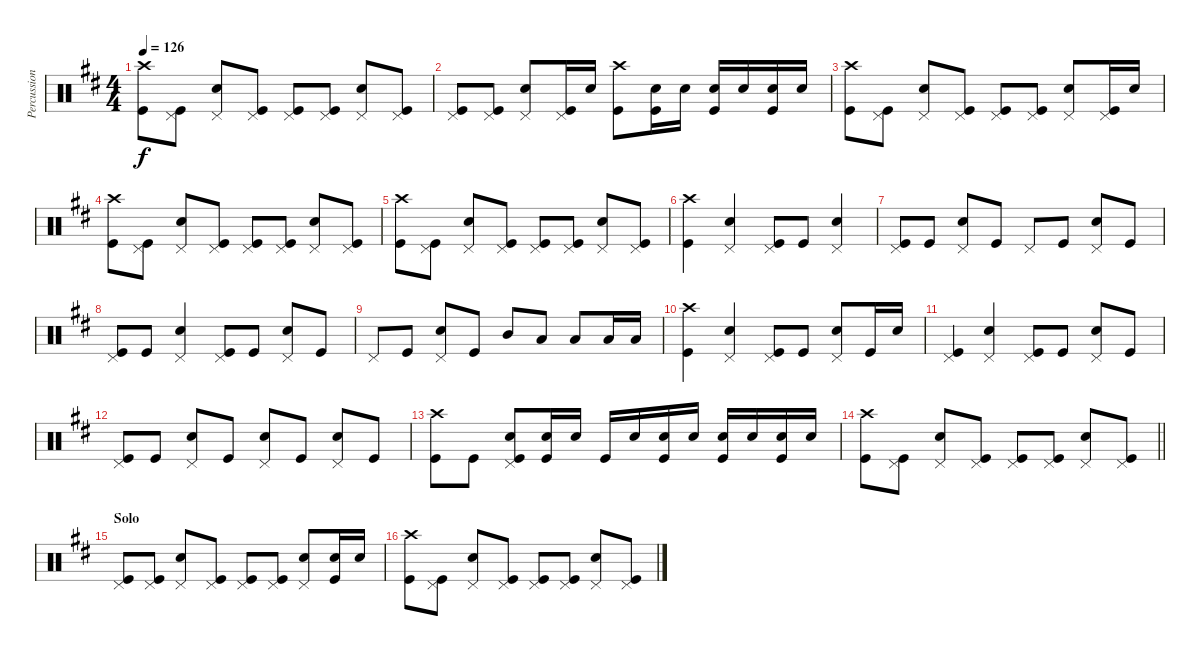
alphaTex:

\track ("Percussion" "Percussion") {instrument percussion}
\staff {score}
\articulation defaults
\ts (4 4)
\tempo 126
\clef neutral
\ks d
("Crash high (hit)" "Kick (hit)").8{dy f} ("Pedal Hi-Hat (hit)" "Kick (hit)").8 ("Pedal Hi-Hat (hit)" "Snare (hit) 2").8 ("Pedal Hi-Hat (hit)" "Kick (hit)").8 ("Pedal Hi-Hat (hit)" "Kick (hit)").8 ("Pedal Hi-Hat (hit)" "Kick (hit)").8 ("Pedal Hi-Hat (hit)" "Snare (hit) 2").8 ("Pedal Hi-Hat (hit)" "Kick (hit)").8 |
("Pedal Hi-Hat (hit)" "Kick (hit)").8 ("Pedal Hi-Hat (hit)" "Kick (hit)").8 ("Pedal Hi-Hat (hit)" "Snare (hit) 2").8 ("Pedal Hi-Hat (hit)" "Kick (hit)").16 "Snare (hit) 2".16 ("Crash high (hit)" "Kick (hit)").8 ("Snare (hit) 2" "Kick (hit)").16 "Snare (hit) 2".16 ("Snare (hit) 2" "Kick (hit)").16 "Snare (hit) 2".16 ("Snare (hit) 2" "Kick (hit)").16 "Snare (hit) 2".16 |
("Crash high (hit)" "Kick (hit)").8 ("Pedal Hi-Hat (hit)" "Kick (hit)").8 ("Pedal Hi-Hat (hit)" "Snare (hit) 2").8 ("Pedal Hi-Hat (hit)" "Kick (hit)").8 ("Pedal Hi-Hat (hit)" "Kick (hit)").8 ("Pedal Hi-Hat (hit)" "Kick (hit)").8 ("Pedal Hi-Hat (hit)" "Snare (hit) 2").8 ("Pedal Hi-Hat (hit)" "Kick (hit)").16 "Snare (hit) 2".16 |
("Crash high (hit)" "Kick (hit)").8 ("Pedal Hi-Hat (hit)" "Kick (hit)").8 ("Pedal Hi-Hat (hit)" "Snare (hit) 2").8 ("Pedal Hi-Hat (hit)" "Kick (hit)").8 ("Pedal Hi-Hat (hit)" "Kick (hit)").8 ("Pedal Hi-Hat (hit)" "Kick (hit)").8 ("Pedal Hi-Hat (hit)" "Snare (hit) 2").8 ("Pedal Hi-Hat (hit)" "Kick (hit)").8 |
("Crash high (hit)" "Kick (hit)").8 ("Pedal Hi-Hat (hit)" "Kick (hit)").8 ("Pedal Hi-Hat (hit)" "Snare (hit) 2").8 ("Pedal Hi-Hat (hit)" "Kick (hit)").8 ("Pedal Hi-Hat (hit)" "Kick (hit)").8 ("Pedal Hi-Hat (hit)" "Kick (hit)").8 ("Pedal Hi-Hat (hit)" "Snare (hit) 2").8 ("Pedal Hi-Hat (hit)" "Kick (hit)").8 |
("Crash high (hit)" "Kick (hit)").4 ("Pedal Hi-Hat (hit)" "Snare (hit) 2").4 ("Pedal Hi-Hat (hit)" "Kick (hit)").8 "Kick (hit)".8 ("Pedal Hi-Hat (hit)" "Snare (hit) 2").4 |
("Pedal Hi-Hat (hit)" "Kick (hit)").8 "Kick (hit)".8 ("Pedal Hi-Hat (hit)" "Snare (hit) 2").8 "Kick (hit)".8 "Pedal Hi-Hat (hit)".8 "Kick (hit)".8 ("Pedal Hi-Hat (hit)" "Snare (hit) 2").8 "Kick (hit)".8 |
("Pedal Hi-Hat (hit)" "Kick (hit)").8 "Kick (hit)".8 ("Pedal Hi-Hat (hit)" "Snare (hit) 2").4 ("Pedal Hi-Hat (hit)" "Kick (hit)").8 "Kick (hit)".8 ("Pedal Hi-Hat (hit)" "Snare (hit) 2").8 "Kick (hit)".8 |
"Pedal Hi-Hat (hit)".8 "Kick (hit)".8 ("Pedal Hi-Hat (hit)" "Snare (hit) 2").8 "Kick (hit)".8 "Mid Tom (hit)".8 "Low Tom (hit)".8 "Low Tom (hit)".8 "Low Tom (hit)".16 "Low Tom (hit)".16 |
("Crash high (hit)" "Kick (hit)").4 ("Pedal Hi-Hat (hit)" "Snare (hit) 2").4 ("Pedal Hi-Hat (hit)" "Kick (hit)").8 "Kick (hit)".8 ("Pedal Hi-Hat (hit)" "Snare (hit) 2").8 "Kick (hit)".16 "Snare (hit) 2".16 |
("Pedal Hi-Hat (hit)" "Kick (hit)").4 ("Pedal Hi-Hat (hit)" "Snare (hit) 2").4 ("Pedal Hi-Hat (hit)" "Kick (hit)").8 "Kick (hit)".8 ("Pedal Hi-Hat (hit)" "Snare (hit) 2").8 "Kick (hit)".8 |
("Pedal Hi-Hat (hit)" "Kick (hit)").8 "Kick (hit)".8 ("Pedal Hi-Hat (hit)" "Snare (hit) 2").8 "Kick (hit)".8 ("Pedal Hi-Hat (hit)" "Snare (hit) 2").8 "Kick (hit)".8 ("Pedal Hi-Hat (hit)" "Snare (hit) 2").8 "Kick (hit)".8 |
("Crash high (hit)" "Kick (hit)").8 "Kick (hit)".8 ("Pedal Hi-Hat (hit)" "Snare (hit) 2" "Kick (hit)").8 ("Snare (hit) 2" "Kick (hit)").16 "Snare (hit) 2".16 "Kick (hit)".16 "Snare (hit) 2".16 ("Snare (hit) 2" "Kick (hit)").16 "Snare (hit) 2".16 ("Snare (hit) 2" "Kick (hit)").16 "Snare (hit) 2".16 ("Snare (hit) 2" "Kick (hit)").16 "Snare (hit) 2".16 |
\barLineRight lightlight
("Crash high (hit)" "Kick (hit)").8 ("Pedal Hi-Hat (hit)" "Kick (hit)").8 ("Pedal Hi-Hat (hit)" "Snare (hit) 2").8 ("Pedal Hi-Hat (hit)" "Kick (hit)").8 ("Pedal Hi-Hat (hit)" "Kick (hit)").8 ("Pedal Hi-Hat (hit)" "Kick (hit)").8 ("Pedal Hi-Hat (hit)" "Snare (hit) 2").8 ("Pedal Hi-Hat (hit)" "Kick (hit)").8 |
\section ("" "Solo")
("Pedal Hi-Hat (hit)" "Kick (hit)").8 ("Pedal Hi-Hat (hit)" "Kick (hit)").8 ("Pedal Hi-Hat (hit)" "Snare (hit) 2").8 ("Pedal Hi-Hat (hit)" "Kick (hit)").8 ("Pedal Hi-Hat (hit)" "Kick (hit)").8 ("Pedal Hi-Hat (hit)" "Kick (hit)").8 ("Pedal Hi-Hat (hit)" "Snare (hit) 2").8 ("Snare (hit) 2" "Kick (hit)").16 "Snare (hit) 2".16 |
("Crash high (hit)" "Kick (hit)").8 ("Pedal Hi-Hat (hit)" "Kick (hit)").8 ("Pedal Hi-Hat (hit)" "Snare (hit) 2").8 ("Pedal Hi-Hat (hit)" "Kick (hit)").8 ("Pedal Hi-Hat (hit)" "Kick (hit)").8 ("Pedal Hi-Hat (hit)" "Kick (hit)").8 ("Pedal Hi-Hat (hit)" "Snare (hit) 2").8 ("Pedal Hi-Hat (hit)" "Kick (hit)").8
